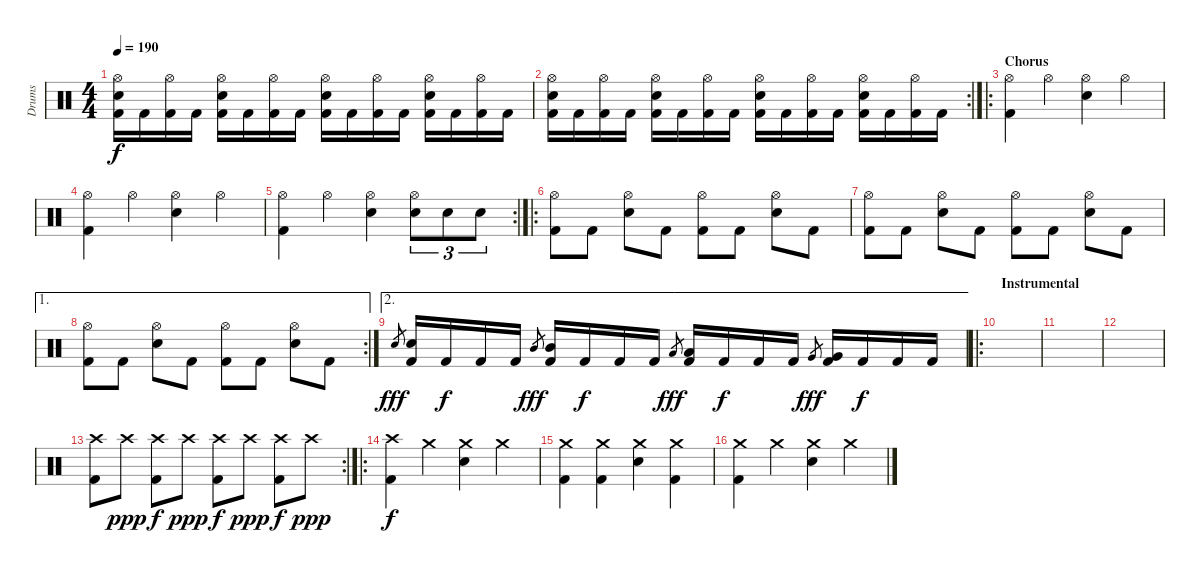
\track ("Drums" "Drums") {instrument percussion}
\staff {score}
\articulation defaults
\ts (4 4)
\tempo 190
\clef neutral
\ks c
("Kick (hit) 2" "Hi-Hat (open)" "Electric Snare (hit)").16{dy f} "Kick (hit) 2".16 ("Kick (hit) 2" "Hi-Hat (open)").16 "Kick (hit) 2".16 ("Kick (hit) 2" "Hi-Hat (open)" "Electric Snare (hit)").16 "Kick (hit) 2".16 ("Kick (hit) 2" "Hi-Hat (open)").16 "Kick (hit) 2".16 ("Kick (hit) 2" "Hi-Hat (open)" "Electric Snare (hit)").16 "Kick (hit) 2".16 ("Kick (hit) 2" "Hi-Hat (open)").16 "Kick (hit) 2".16 ("Kick (hit) 2" "Hi-Hat (open)" "Electric Snare (hit)").16 "Kick (hit) 2".16 ("Kick (hit) 2" "Hi-Hat (open)").16 "Kick (hit) 2".16 |
\rc 2
("Kick (hit) 2" "Hi-Hat (open)" "Electric Snare (hit)").16 "Kick (hit) 2".16 ("Kick (hit) 2" "Hi-Hat (open)").16 "Kick (hit) 2".16 ("Kick (hit) 2" "Hi-Hat (open)" "Electric Snare (hit)").16 "Kick (hit) 2".16 ("Kick (hit) 2" "Hi-Hat (open)").16 "Kick (hit) 2".16 ("Kick (hit) 2" "Hi-Hat (open)" "Electric Snare (hit)").16 "Kick (hit) 2".16 ("Kick (hit) 2" "Hi-Hat (open)").16 "Kick (hit) 2".16 ("Kick (hit) 2" "Hi-Hat (open)" "Electric Snare (hit)").16 "Kick (hit) 2".16 ("Kick (hit) 2" "Hi-Hat (open)").16 "Kick (hit) 2".16 |
\ro
\section ("" "Chorus")
("Hi-Hat (open)" "Kick (hit) 2").4 "Hi-Hat (open)".4 ("Hi-Hat (open)" "Electric Snare (hit)").4 "Hi-Hat (open)".4 |
("Hi-Hat (open)" "Kick (hit) 2").4 "Hi-Hat (open)".4 ("Hi-Hat (open)" "Electric Snare (hit)").4 "Hi-Hat (open)".4 |
\rc 2
("Hi-Hat (open)" "Kick (hit) 2").4 "Hi-Hat (open)".4 ("Hi-Hat (open)" "Electric Snare (hit)").4 ("Hi-Hat (open)" "Electric Snare (hit)").8{tu (3 2)} "Electric Snare (hit)".8{tu (3 2)} "Electric Snare (hit)".8{tu (3 2)} |
\ro
("Hi-Hat (open)" "Kick (hit) 2").8 "Kick (hit) 2".8 ("Hi-Hat (open)" "Electric Snare (hit)").8 "Kick (hit) 2".8 ("Hi-Hat (open)" "Kick (hit) 2").8 "Kick (hit) 2".8 ("Hi-Hat (open)" "Electric Snare (hit)").8 "Kick (hit) 2".8 |
("Hi-Hat (open)" "Kick (hit) 2").8 "Kick (hit) 2".8 ("Hi-Hat (open)" "Electric Snare (hit)").8 "Kick (hit) 2".8 ("Hi-Hat (open)" "Kick (hit) 2").8 "Kick (hit) 2".8 ("Hi-Hat (open)" "Electric Snare (hit)").8 "Kick (hit) 2".8 |
\ae 1
\rc 2
("Hi-Hat (open)" "Kick (hit) 2").8 "Kick (hit) 2".8 ("Hi-Hat (open)" "Electric Snare (hit)").8 "Kick (hit) 2".8 ("Hi-Hat (open)" "Kick (hit) 2").8 "Kick (hit) 2".8 ("Hi-Hat (open)" "Electric Snare (hit)").8 "Kick (hit) 2".8 |
\ae 2 "Electric Snare (hit)".8{gr dy fff}
("Electric Snare (hit)" "Kick (hit) 2").16 "Kick (hit) 2".16{dy f} "Kick (hit) 2".16 "Kick (hit) 2".16 "Mid Tom (hit)".8{gr dy fff} ("Mid Tom (hit)" "Kick (hit) 2").16 "Kick (hit) 2".16{dy f} "Kick (hit) 2".16 "Kick (hit) 2".16 "Low Tom (hit)".8{gr dy fff} ("Low Tom (hit)" "Kick (hit) 2").16 "Kick (hit) 2".16{dy f} "Kick (hit) 2".16 "Kick (hit) 2".16 "Very Low Tom (hit)".8{gr dy fff} ("Very Low Tom (hit)" "Kick (hit) 2").16 "Kick (hit) 2".16{dy f} "Kick (hit) 2".16 "Kick (hit) 2".16 |
\ro
\section ("" "Instrumental")
|
|
|
\rc 2
("Crash high (hit)" "Kick (hit) 2").8 "Crash high (hit)".8{dy ppp} ("Crash high (hit)" "Kick (hit) 2").8{dy f} "Crash high (hit)".8{dy ppp} ("Crash high (hit)" "Kick (hit) 2").8{dy f} "Crash high (hit)".8{dy ppp} ("Crash high (hit)" "Kick (hit) 2").8{dy f} "Crash high (hit)".8{dy ppp} |
\ro
("Crash high (hit)" "Kick (hit) 2").4{dy f} "Crash medium (hit)".4 ("Crash medium (hit)" "Electric Snare (hit)").4 "Crash medium (hit)".4 |
("Crash medium (hit)" "Kick (hit) 2").4 ("Crash medium (hit)" "Kick (hit) 2").4 ("Crash medium (hit)" "Electric Snare (hit)").4 ("Crash medium (hit)" "Kick (hit) 2").4 |
("Crash medium (hit)" "Kick (hit) 2").4 "Crash medium (hit)".4 ("Crash medium (hit)" "Electric Snare (hit)").4 "Crash medium (hit)".4
